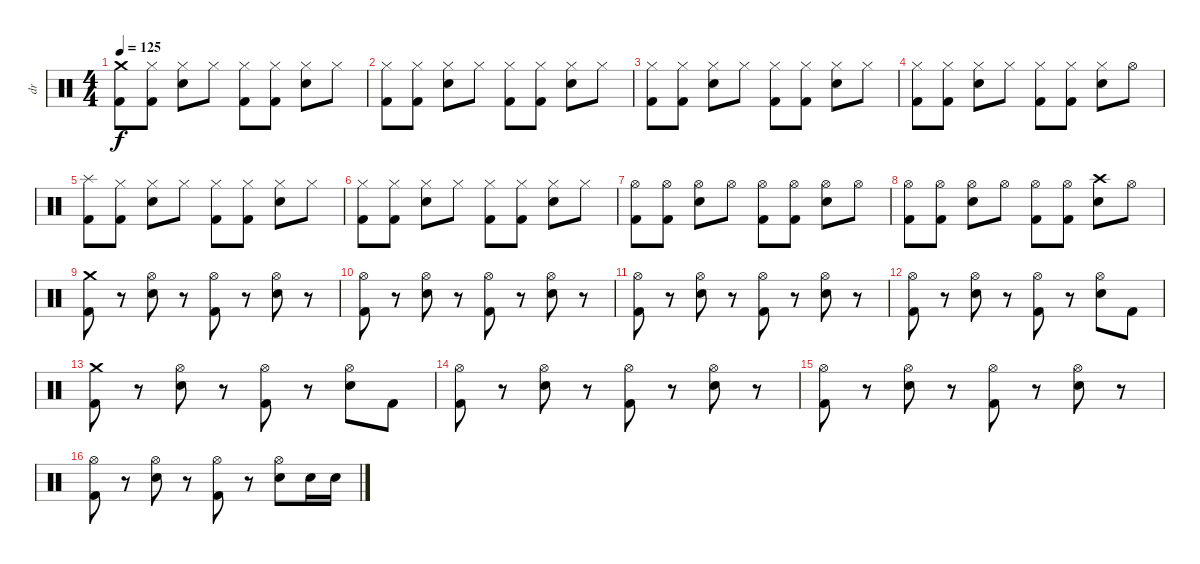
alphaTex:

\track ("dr" "dr") {instrument percussion}
\staff {score}
\articulation defaults
\ts (4 4)
\tempo 125
\clef neutral
\ks c
("Crash medium (hit)" "Kick (hit) 2").8{dy f} ("Hi-Hat (closed)" "Kick (hit) 2").8 ("Hi-Hat (closed)" "Snare (hit) 2").8 "Hi-Hat (closed)".8 ("Hi-Hat (closed)" "Kick (hit) 2").8 ("Hi-Hat (closed)" "Kick (hit) 2").8 ("Hi-Hat (closed)" "Snare (hit) 2").8 "Hi-Hat (closed)".8 |
("Hi-Hat (closed)" "Kick (hit) 2").8 ("Hi-Hat (closed)" "Kick (hit) 2").8 ("Hi-Hat (closed)" "Snare (hit) 2").8 "Hi-Hat (closed)".8 ("Hi-Hat (closed)" "Kick (hit) 2").8 ("Hi-Hat (closed)" "Kick (hit) 2").8 ("Hi-Hat (closed)" "Snare (hit) 2").8 "Hi-Hat (closed)".8 |
("Hi-Hat (closed)" "Kick (hit) 2").8 ("Hi-Hat (closed)" "Kick (hit) 2").8 ("Hi-Hat (closed)" "Snare (hit) 2").8 "Hi-Hat (closed)".8 ("Hi-Hat (closed)" "Kick (hit) 2").8 ("Hi-Hat (closed)" "Kick (hit) 2").8 ("Hi-Hat (closed)" "Snare (hit) 2").8 "Hi-Hat (closed)".8 |
("Hi-Hat (closed)" "Kick (hit) 2").8 ("Hi-Hat (closed)" "Kick (hit) 2").8 ("Hi-Hat (closed)" "Snare (hit) 2").8 "Hi-Hat (closed)".8 ("Hi-Hat (closed)" "Kick (hit) 2").8 ("Hi-Hat (closed)" "Kick (hit) 2").8 ("Hi-Hat (closed)" "Snare (hit) 2").8 "Hi-Hat (open)".8 |
("Splash (hit)" "Kick (hit) 2").8 ("Hi-Hat (closed)" "Kick (hit) 2").8 ("Hi-Hat (closed)" "Snare (hit) 2").8 "Hi-Hat (closed)".8 ("Hi-Hat (closed)" "Kick (hit) 2").8 ("Hi-Hat (closed)" "Kick (hit) 2").8 ("Hi-Hat (closed)" "Snare (hit) 2").8 "Hi-Hat (closed)".8 |
("Hi-Hat (closed)" "Kick (hit) 2").8 ("Hi-Hat (closed)" "Kick (hit) 2").8 ("Hi-Hat (closed)" "Snare (hit) 2").8 "Hi-Hat (closed)".8 ("Hi-Hat (closed)" "Kick (hit) 2").8 ("Hi-Hat (closed)" "Kick (hit) 2").8 ("Hi-Hat (closed)" "Snare (hit) 2").8 "Hi-Hat (closed)".8 |
("Hi-Hat (open)" "Kick (hit) 2").8 ("Hi-Hat (open)" "Kick (hit) 2").8 ("Hi-Hat (open)" "Snare (hit) 2").8 "Hi-Hat (open)".8 ("Hi-Hat (open)" "Kick (hit) 2").8 ("Hi-Hat (open)" "Kick (hit) 2").8 ("Hi-Hat (open)" "Snare (hit) 2").8 "Hi-Hat (open)".8 |
("Hi-Hat (open)" "Kick (hit) 2").8 ("Hi-Hat (open)" "Kick (hit) 2").8 ("Hi-Hat (open)" "Snare (hit) 2").8 "Hi-Hat (open)".8 ("Hi-Hat (open)" "Kick (hit) 2").8 ("Hi-Hat (open)" "Kick (hit) 2").8 ("Crash high (hit)" "Snare (hit) 2").8 "Hi-Hat (open)".8 |
("Crash medium (hit)" "Kick (hit) 2").8 r.8 ("Hi-Hat (open)" "Snare (hit) 2").8 r.8 ("Hi-Hat (open)" "Kick (hit) 2").8 r.8 ("Hi-Hat (open)" "Snare (hit) 2").8 r.8 |
("Hi-Hat (open)" "Kick (hit) 2").8 r.8 ("Hi-Hat (open)" "Snare (hit) 2").8 r.8 ("Hi-Hat (open)" "Kick (hit) 2").8 r.8 ("Hi-Hat (open)" "Snare (hit) 2").8 r.8 |
("Hi-Hat (open)" "Kick (hit) 2").8 r.8 ("Hi-Hat (open)" "Snare (hit) 2").8 r.8 ("Hi-Hat (open)" "Kick (hit) 2").8 r.8 ("Hi-Hat (open)" "Snare (hit) 2").8 r.8 |
("Hi-Hat (open)" "Kick (hit) 2").8 r.8 ("Hi-Hat (open)" "Snare (hit) 2").8 r.8 ("Hi-Hat (open)" "Kick (hit) 2").8 r.8 ("Hi-Hat (open)" "Snare (hit) 2").8 "Kick (hit) 2".8 |
("Crash medium (hit)" "Kick (hit) 2").8 r.8 ("Hi-Hat (open)" "Snare (hit) 2").8 r.8 ("Hi-Hat (open)" "Kick (hit) 2").8 r.8 ("Hi-Hat (open)" "Snare (hit) 2").8 "Kick (hit) 2".8 |
("Hi-Hat (open)" "Kick (hit) 2").8 r.8 ("Hi-Hat (open)" "Snare (hit) 2").8 r.8 ("Hi-Hat (open)" "Kick (hit) 2").8 r.8 ("Hi-Hat (open)" "Snare (hit) 2").8 r.8 |
("Hi-Hat (open)" "Kick (hit) 2").8 r.8 ("Hi-Hat (open)" "Snare (hit) 2").8 r.8 ("Hi-Hat (open)" "Kick (hit) 2").8 r.8 ("Hi-Hat (open)" "Snare (hit) 2").8 r.8 |
("Hi-Hat (open)" "Kick (hit) 2").8 r.8 ("Hi-Hat (open)" "Snare (hit) 2").8 r.8 ("Hi-Hat (open)" "Kick (hit) 2").8 r.8 ("Hi-Hat (open)" "Snare (hit) 2").8 "Snare (hit) 2".16 "Snare (hit) 2".16
